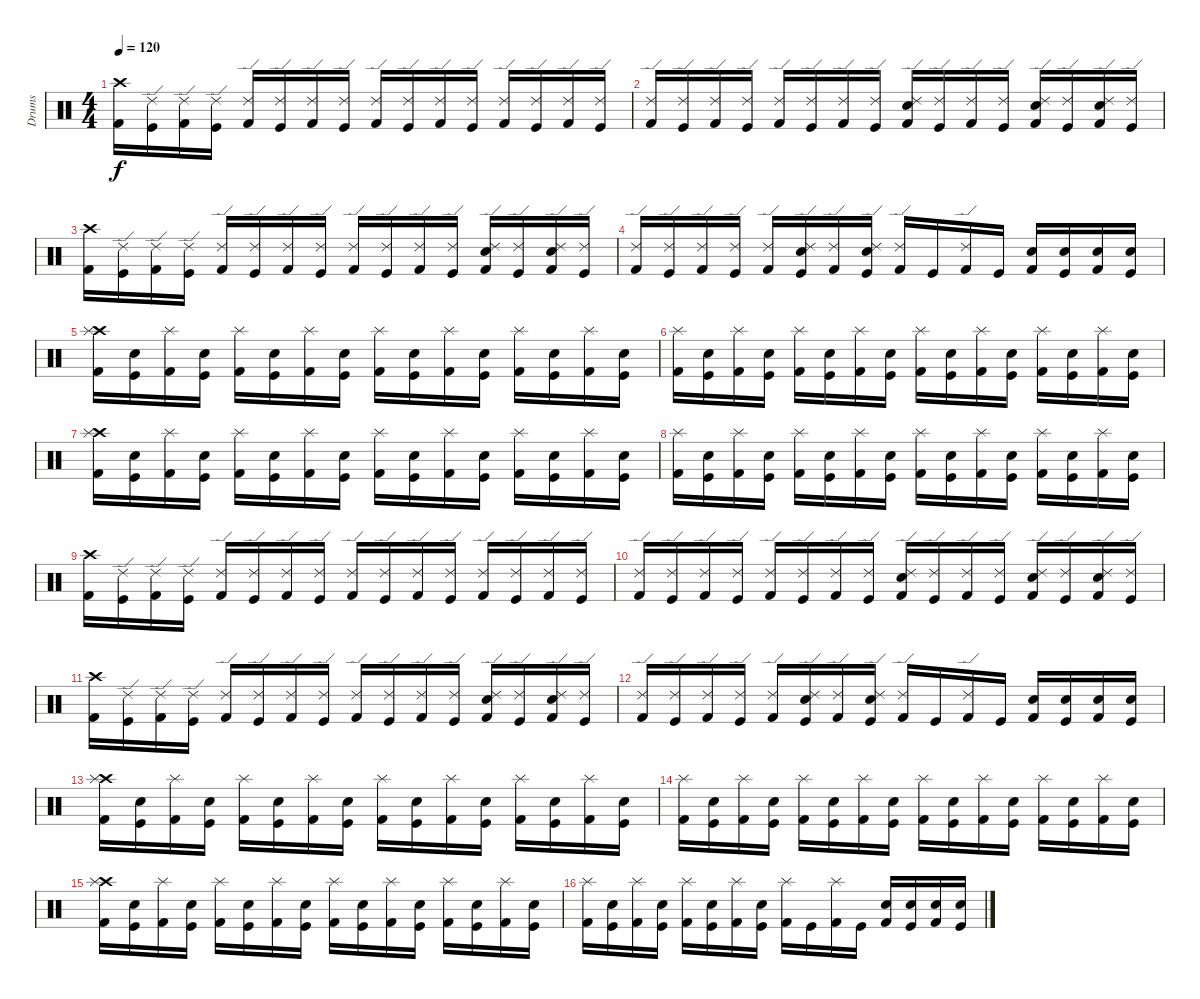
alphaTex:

\track ("Drums" "Drums") {instrument percussion}
\staff {score}
\articulation defaults
\ts (4 4)
\tempo 120
\clef neutral
\ks c
("Crash high (hit)" "Kick (hit) 2").16{dy f} ("Ride (edge) 2" "Kick (hit)").16 ("Ride (edge) 2" "Kick (hit) 2").16 ("Ride (edge) 2" "Kick (hit)").16 ("Ride (edge) 2" "Kick (hit) 2").16 ("Ride (edge) 2" "Kick (hit)").16 ("Ride (edge) 2" "Kick (hit) 2").16 ("Ride (edge) 2" "Kick (hit)").16 ("Ride (edge) 2" "Kick (hit) 2").16 ("Ride (edge) 2" "Kick (hit)").16 ("Ride (edge) 2" "Kick (hit) 2").16 ("Ride (edge) 2" "Kick (hit)").16 ("Ride (edge) 2" "Kick (hit) 2").16 ("Ride (edge) 2" "Kick (hit)").16 ("Ride (edge) 2" "Kick (hit) 2").16 ("Ride (edge) 2" "Kick (hit)").16 |
("Ride (edge) 2" "Kick (hit) 2").16 ("Ride (edge) 2" "Kick (hit)").16 ("Ride (edge) 2" "Kick (hit) 2").16 ("Ride (edge) 2" "Kick (hit)").16 ("Ride (edge) 2" "Kick (hit) 2").16 ("Ride (edge) 2" "Kick (hit)").16 ("Ride (edge) 2" "Kick (hit) 2").16 ("Ride (edge) 2" "Kick (hit)").16 ("Ride (edge) 2" "Snare (hit) 2" "Kick (hit) 2").16 ("Ride (edge) 2" "Kick (hit)").16 ("Ride (edge) 2" "Kick (hit) 2").16 ("Ride (edge) 2" "Kick (hit)").16 ("Ride (edge) 2" "Snare (hit) 2" "Kick (hit) 2").16 ("Ride (edge) 2" "Kick (hit)").16 ("Ride (edge) 2" "Snare (hit) 2" "Kick (hit) 2").16 ("Ride (edge) 2" "Kick (hit)").16 |
("Crash high (hit)" "Kick (hit) 2").16 ("Ride (edge) 2" "Kick (hit)").16 ("Ride (edge) 2" "Kick (hit) 2").16 ("Ride (edge) 2" "Kick (hit)").16 ("Ride (edge) 2" "Kick (hit) 2").16 ("Ride (edge) 2" "Kick (hit)").16 ("Ride (edge) 2" "Kick (hit) 2").16 ("Ride (edge) 2" "Kick (hit)").16 ("Ride (edge) 2" "Kick (hit) 2").16 ("Ride (edge) 2" "Kick (hit)").16 ("Ride (edge) 2" "Kick (hit) 2").16 ("Ride (edge) 2" "Kick (hit)").16 ("Ride (edge) 2" "Snare (hit) 2" "Kick (hit) 2").16 ("Ride (edge) 2" "Kick (hit)").16 ("Ride (edge) 2" "Snare (hit) 2" "Kick (hit) 2").16 ("Ride (edge) 2" "Kick (hit)").16 |
("Ride (edge) 2" "Kick (hit) 2").16 ("Ride (edge) 2" "Kick (hit)").16 ("Ride (edge) 2" "Kick (hit) 2").16 ("Ride (edge) 2" "Kick (hit)").16 ("Ride (edge) 2" "Kick (hit) 2").16 ("Ride (edge) 2" "Snare (hit) 2" "Kick (hit)").16 ("Ride (edge) 2" "Kick (hit) 2").16 ("Ride (edge) 2" "Snare (hit) 2" "Kick (hit)").16 ("Ride (edge) 2" "Kick (hit) 2").16 "Kick (hit)".16 ("Ride (edge) 2" "Kick (hit) 2").16 "Kick (hit)".16 ("Snare (hit) 2" "Kick (hit) 2").16 ("Snare (hit) 2" "Kick (hit)").16 ("Snare (hit) 2" "Kick (hit) 2").16 ("Snare (hit) 2" "Kick (hit)").16 |
("Crash high (hit)" "Splash (hit)" "Kick (hit) 2").16 ("Snare (hit) 2" "Kick (hit)").16 ("Splash (hit)" "Kick (hit) 2").16 ("Snare (hit) 2" "Kick (hit)").16 ("Splash (hit)" "Kick (hit) 2").16 ("Snare (hit) 2" "Kick (hit)").16 ("Splash (hit)" "Kick (hit) 2").16 ("Snare (hit) 2" "Kick (hit)").16 ("Splash (hit)" "Kick (hit) 2").16 ("Snare (hit) 2" "Kick (hit)").16 ("Splash (hit)" "Kick (hit) 2").16 ("Snare (hit) 2" "Kick (hit)").16 ("Splash (hit)" "Kick (hit) 2").16 ("Snare (hit) 2" "Kick (hit)").16 ("Splash (hit)" "Kick (hit) 2").16 ("Snare (hit) 2" "Kick (hit)").16 |
("Splash (hit)" "Kick (hit) 2").16 ("Snare (hit) 2" "Kick (hit)").16 ("Splash (hit)" "Kick (hit) 2").16 ("Snare (hit) 2" "Kick (hit)").16 ("Splash (hit)" "Kick (hit) 2").16 ("Snare (hit) 2" "Kick (hit)").16 ("Splash (hit)" "Kick (hit) 2").16 ("Snare (hit) 2" "Kick (hit)").16 ("Splash (hit)" "Kick (hit) 2").16 ("Snare (hit) 2" "Kick (hit)").16 ("Splash (hit)" "Kick (hit) 2").16 ("Snare (hit) 2" "Kick (hit)").16 ("Splash (hit)" "Kick (hit) 2").16 ("Snare (hit) 2" "Kick (hit)").16 ("Splash (hit)" "Kick (hit) 2").16 ("Snare (hit) 2" "Kick (hit)").16 |
("Crash high (hit)" "Splash (hit)" "Kick (hit) 2").16 ("Snare (hit) 2" "Kick (hit)").16 ("Splash (hit)" "Kick (hit) 2").16 ("Snare (hit) 2" "Kick (hit)").16 ("Splash (hit)" "Kick (hit) 2").16 ("Snare (hit) 2" "Kick (hit)").16 ("Splash (hit)" "Kick (hit) 2").16 ("Snare (hit) 2" "Kick (hit)").16 ("Splash (hit)" "Kick (hit) 2").16 ("Snare (hit) 2" "Kick (hit)").16 ("Splash (hit)" "Kick (hit) 2").16 ("Snare (hit) 2" "Kick (hit)").16 ("Splash (hit)" "Kick (hit) 2").16 ("Snare (hit) 2" "Kick (hit)").16 ("Splash (hit)" "Kick (hit) 2").16 ("Snare (hit) 2" "Kick (hit)").16 |
("Splash (hit)" "Kick (hit) 2").16 ("Snare (hit) 2" "Kick (hit)").16 ("Splash (hit)" "Kick (hit) 2").16 ("Snare (hit) 2" "Kick (hit)").16 ("Splash (hit)" "Kick (hit) 2").16 ("Snare (hit) 2" "Kick (hit)").16 ("Splash (hit)" "Kick (hit) 2").16 ("Snare (hit) 2" "Kick (hit)").16 ("Splash (hit)" "Kick (hit) 2").16 ("Snare (hit) 2" "Kick (hit)").16 ("Splash (hit)" "Kick (hit) 2").16 ("Snare (hit) 2" "Kick (hit)").16 ("Splash (hit)" "Kick (hit) 2").16 ("Snare (hit) 2" "Kick (hit)").16 ("Splash (hit)" "Kick (hit) 2").16 ("Snare (hit) 2" "Kick (hit)").16 |
("Crash high (hit)" "Kick (hit) 2").16 ("Ride (edge) 2" "Kick (hit)").16 ("Ride (edge) 2" "Kick (hit) 2").16 ("Ride (edge) 2" "Kick (hit)").16 ("Ride (edge) 2" "Kick (hit) 2").16 ("Ride (edge) 2" "Kick (hit)").16 ("Ride (edge) 2" "Kick (hit) 2").16 ("Ride (edge) 2" "Kick (hit)").16 ("Ride (edge) 2" "Kick (hit) 2").16 ("Ride (edge) 2" "Kick (hit)").16 ("Ride (edge) 2" "Kick (hit) 2").16 ("Ride (edge) 2" "Kick (hit)").16 ("Ride (edge) 2" "Kick (hit) 2").16 ("Ride (edge) 2" "Kick (hit)").16 ("Ride (edge) 2" "Kick (hit) 2").16 ("Ride (edge) 2" "Kick (hit)").16 |
("Ride (edge) 2" "Kick (hit) 2").16 ("Ride (edge) 2" "Kick (hit)").16 ("Ride (edge) 2" "Kick (hit) 2").16 ("Ride (edge) 2" "Kick (hit)").16 ("Ride (edge) 2" "Kick (hit) 2").16 ("Ride (edge) 2" "Kick (hit)").16 ("Ride (edge) 2" "Kick (hit) 2").16 ("Ride (edge) 2" "Kick (hit)").16 ("Ride (edge) 2" "Snare (hit) 2" "Kick (hit) 2").16 ("Ride (edge) 2" "Kick (hit)").16 ("Ride (edge) 2" "Kick (hit) 2").16 ("Ride (edge) 2" "Kick (hit)").16 ("Ride (edge) 2" "Snare (hit) 2" "Kick (hit) 2").16 ("Ride (edge) 2" "Kick (hit)").16 ("Ride (edge) 2" "Snare (hit) 2" "Kick (hit) 2").16 ("Ride (edge) 2" "Kick (hit)").16 |
("Crash high (hit)" "Kick (hit) 2").16 ("Ride (edge) 2" "Kick (hit)").16 ("Ride (edge) 2" "Kick (hit) 2").16 ("Ride (edge) 2" "Kick (hit)").16 ("Ride (edge) 2" "Kick (hit) 2").16 ("Ride (edge) 2" "Kick (hit)").16 ("Ride (edge) 2" "Kick (hit) 2").16 ("Ride (edge) 2" "Kick (hit)").16 ("Ride (edge) 2" "Kick (hit) 2").16 ("Ride (edge) 2" "Kick (hit)").16 ("Ride (edge) 2" "Kick (hit) 2").16 ("Ride (edge) 2" "Kick (hit)").16 ("Ride (edge) 2" "Snare (hit) 2" "Kick (hit) 2").16 ("Ride (edge) 2" "Kick (hit)").16 ("Ride (edge) 2" "Snare (hit) 2" "Kick (hit) 2").16 ("Ride (edge) 2" "Kick (hit)").16 |
("Ride (edge) 2" "Kick (hit) 2").16 ("Ride (edge) 2" "Kick (hit)").16 ("Ride (edge) 2" "Kick (hit) 2").16 ("Ride (edge) 2" "Kick (hit)").16 ("Ride (edge) 2" "Kick (hit) 2").16 ("Ride (edge) 2" "Snare (hit) 2" "Kick (hit)").16 ("Ride (edge) 2" "Kick (hit) 2").16 ("Ride (edge) 2" "Snare (hit) 2" "Kick (hit)").16 ("Ride (edge) 2" "Kick (hit) 2").16 "Kick (hit)".16 ("Ride (edge) 2" "Kick (hit) 2").16 "Kick (hit)".16 ("Snare (hit) 2" "Kick (hit) 2").16 ("Snare (hit) 2" "Kick (hit)").16 ("Snare (hit) 2" "Kick (hit) 2").16 ("Snare (hit) 2" "Kick (hit)").16 |
("Crash high (hit)" "Splash (hit)" "Kick (hit) 2").16 ("Snare (hit) 2" "Kick (hit)").16 ("Splash (hit)" "Kick (hit) 2").16 ("Snare (hit) 2" "Kick (hit)").16 ("Splash (hit)" "Kick (hit) 2").16 ("Snare (hit) 2" "Kick (hit)").16 ("Splash (hit)" "Kick (hit) 2").16 ("Snare (hit) 2" "Kick (hit)").16 ("Splash (hit)" "Kick (hit) 2").16 ("Snare (hit) 2" "Kick (hit)").16 ("Splash (hit)" "Kick (hit) 2").16 ("Snare (hit) 2" "Kick (hit)").16 ("Splash (hit)" "Kick (hit) 2").16 ("Snare (hit) 2" "Kick (hit)").16 ("Splash (hit)" "Kick (hit) 2").16 ("Snare (hit) 2" "Kick (hit)").16 |
("Splash (hit)" "Kick (hit) 2").16 ("Snare (hit) 2" "Kick (hit)").16 ("Splash (hit)" "Kick (hit) 2").16 ("Snare (hit) 2" "Kick (hit)").16 ("Splash (hit)" "Kick (hit) 2").16 ("Snare (hit) 2" "Kick (hit)").16 ("Splash (hit)" "Kick (hit) 2").16 ("Snare (hit) 2" "Kick (hit)").16 ("Splash (hit)" "Kick (hit) 2").16 ("Snare (hit) 2" "Kick (hit)").16 ("Splash (hit)" "Kick (hit) 2").16 ("Snare (hit) 2" "Kick (hit)").16 ("Splash (hit)" "Kick (hit) 2").16 ("Snare (hit) 2" "Kick (hit)").16 ("Splash (hit)" "Kick (hit) 2").16 ("Snare (hit) 2" "Kick (hit)").16 |
("Crash high (hit)" "Splash (hit)" "Kick (hit) 2").16 ("Snare (hit) 2" "Kick (hit)").16 ("Splash (hit)" "Kick (hit) 2").16 ("Snare (hit) 2" "Kick (hit)").16 ("Splash (hit)" "Kick (hit) 2").16 ("Snare (hit) 2" "Kick (hit)").16 ("Splash (hit)" "Kick (hit) 2").16 ("Snare (hit) 2" "Kick (hit)").16 ("Splash (hit)" "Kick (hit) 2").16 ("Snare (hit) 2" "Kick (hit)").16 ("Splash (hit)" "Kick (hit) 2").16 ("Snare (hit) 2" "Kick (hit)").16 ("Splash (hit)" "Kick (hit) 2").16 ("Snare (hit) 2" "Kick (hit)").16 ("Splash (hit)" "Kick (hit) 2").16 ("Snare (hit) 2" "Kick (hit)").16 |
("Splash (hit)" "Kick (hit) 2").16 ("Snare (hit) 2" "Kick (hit)").16 ("Splash (hit)" "Kick (hit) 2").16 ("Snare (hit) 2" "Kick (hit)").16 ("Splash (hit)" "Kick (hit) 2").16 ("Snare (hit) 2" "Kick (hit)").16 ("Splash (hit)" "Kick (hit) 2").16 ("Snare (hit) 2" "Kick (hit)").16 ("Splash (hit)" "Kick (hit) 2").16 "Kick (hit)".16 ("Splash (hit)" "Kick (hit) 2").16 "Kick (hit)".16 ("Snare (hit) 2" "Kick (hit) 2").16 ("Snare (hit) 2" "Kick (hit)").16 ("Snare (hit) 2" "Kick (hit) 2").16 ("Snare (hit) 2" "Kick (hit)").16
